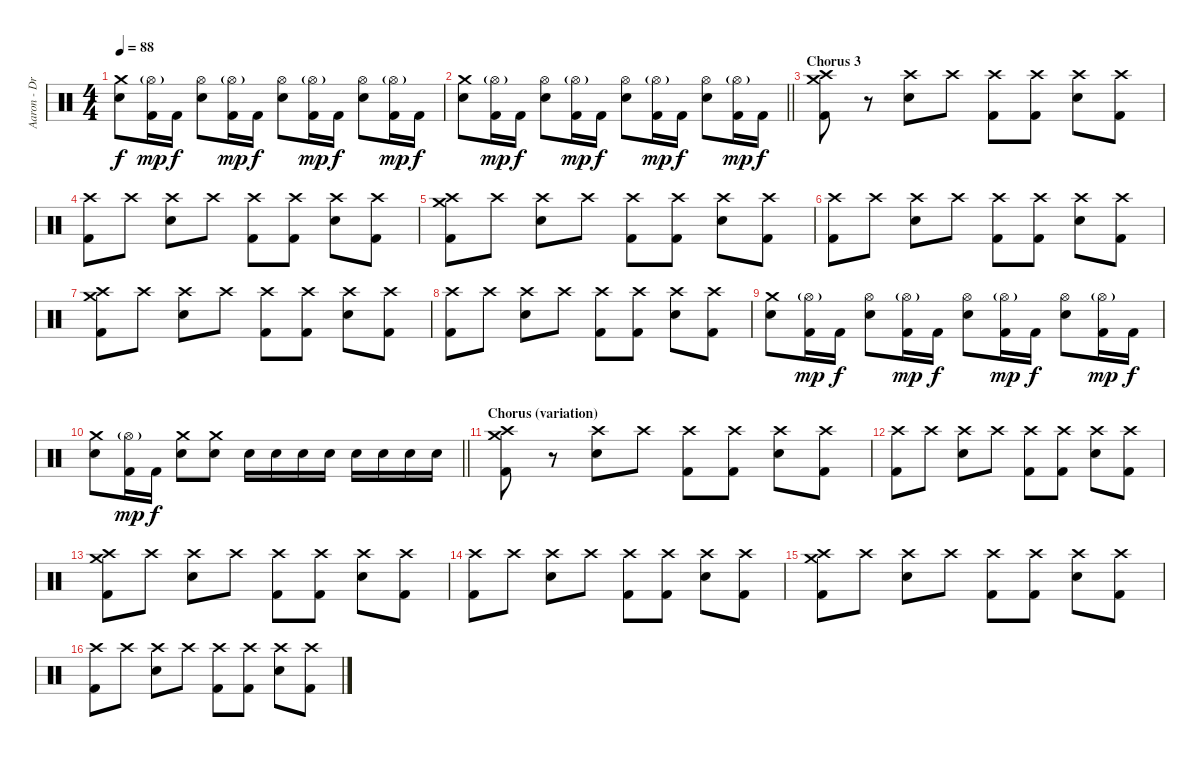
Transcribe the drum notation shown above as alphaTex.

\track ("Aaron - Drums" "Aaron - Dr") {instrument percussion}
\staff {score}
\articulation defaults
\ts (4 4)
\tempo 88
\clef neutral
\ks c
("Crash medium (hit)" "Electric Snare (hit)").8{dy f} ("Hi-Hat (open)"{g} "Kick (hit) 2").16{dy mp} "Kick (hit) 2".16{dy f} ("Hi-Hat (open)" "Electric Snare (hit)").8 ("Hi-Hat (open)"{g} "Kick (hit) 2").16{dy mp} "Kick (hit) 2".16{dy f} ("Hi-Hat (open)" "Electric Snare (hit)").8 ("Hi-Hat (open)"{g} "Kick (hit) 2").16{dy mp} "Kick (hit) 2".16{dy f} ("Hi-Hat (open)" "Electric Snare (hit)").8 ("Hi-Hat (open)"{g} "Kick (hit) 2").16{dy mp} "Kick (hit) 2".16{dy f} |
\barLineRight lightlight
("Crash medium (hit)" "Electric Snare (hit)").8 ("Hi-Hat (open)"{g} "Kick (hit) 2").16{dy mp} "Kick (hit) 2".16{dy f} ("Hi-Hat (open)" "Electric Snare (hit)").8 ("Hi-Hat (open)"{g} "Kick (hit) 2").16{dy mp} "Kick (hit) 2".16{dy f} ("Hi-Hat (open)" "Electric Snare (hit)").8 ("Hi-Hat (open)"{g} "Kick (hit) 2").16{dy mp} "Kick (hit) 2".16{dy f} ("Hi-Hat (open)" "Electric Snare (hit)").8 ("Hi-Hat (open)"{g} "Kick (hit) 2").16{dy mp} "Kick (hit) 2".16{dy f} |
\section ("" "Chorus 3")
("Crash high (hit)" "Crash medium (hit)" "Kick (hit) 2").8 r.8 ("Crash high (hit)" "Electric Snare (hit)").8 "Crash high (hit)".8 ("Crash high (hit)" "Kick (hit) 2").8 ("Crash high (hit)" "Kick (hit) 2").8 ("Crash high (hit)" "Electric Snare (hit)").8 ("Crash high (hit)" "Kick (hit) 2").8 |
("Crash high (hit)" "Kick (hit) 2").8 "Crash high (hit)".8 ("Crash high (hit)" "Electric Snare (hit)").8 "Crash high (hit)".8 ("Crash high (hit)" "Kick (hit) 2").8 ("Crash high (hit)" "Kick (hit) 2").8 ("Crash high (hit)" "Electric Snare (hit)").8 ("Crash high (hit)" "Kick (hit) 2").8 |
("Crash high (hit)" "Crash medium (hit)" "Kick (hit) 2").8 "Crash high (hit)".8 ("Crash high (hit)" "Electric Snare (hit)").8 "Crash high (hit)".8 ("Crash high (hit)" "Kick (hit) 2").8 ("Crash high (hit)" "Kick (hit) 2").8 ("Crash high (hit)" "Electric Snare (hit)").8 ("Crash high (hit)" "Kick (hit) 2").8 |
("Crash high (hit)" "Kick (hit) 2").8 "Crash high (hit)".8 ("Crash high (hit)" "Electric Snare (hit)").8 "Crash high (hit)".8 ("Crash high (hit)" "Kick (hit) 2").8 ("Crash high (hit)" "Kick (hit) 2").8 ("Crash high (hit)" "Electric Snare (hit)").8 ("Crash high (hit)" "Kick (hit) 2").8 |
("Crash high (hit)" "Crash medium (hit)" "Kick (hit) 2").8 "Crash high (hit)".8 ("Crash high (hit)" "Electric Snare (hit)").8 "Crash high (hit)".8 ("Crash high (hit)" "Kick (hit) 2").8 ("Crash high (hit)" "Kick (hit) 2").8 ("Crash high (hit)" "Electric Snare (hit)").8 ("Crash high (hit)" "Kick (hit) 2").8 |
("Crash high (hit)" "Kick (hit) 2").8 "Crash high (hit)".8 ("Crash high (hit)" "Electric Snare (hit)").8 "Crash high (hit)".8 ("Crash high (hit)" "Kick (hit) 2").8 ("Crash high (hit)" "Kick (hit) 2").8 ("Crash high (hit)" "Electric Snare (hit)").8 ("Crash high (hit)" "Kick (hit) 2").8 |
("Crash medium (hit)" "Electric Snare (hit)").8 ("Hi-Hat (open)"{g} "Kick (hit) 2").16{dy mp} "Kick (hit) 2".16{dy f} ("Hi-Hat (open)" "Electric Snare (hit)").8 ("Hi-Hat (open)"{g} "Kick (hit) 2").16{dy mp} "Kick (hit) 2".16{dy f} ("Hi-Hat (open)" "Electric Snare (hit)").8 ("Hi-Hat (open)"{g} "Kick (hit) 2").16{dy mp} "Kick (hit) 2".16{dy f} ("Hi-Hat (open)" "Electric Snare (hit)").8 ("Hi-Hat (open)"{g} "Kick (hit) 2").16{dy mp} "Kick (hit) 2".16{dy f} |
\barLineRight lightlight
("Crash medium (hit)" "Electric Snare (hit)").8 ("Hi-Hat (open)"{g} "Kick (hit) 2").16{dy mp} "Kick (hit) 2".16{dy f} ("Crash medium (hit)" "Electric Snare (hit)").8 ("Crash medium (hit)" "Electric Snare (hit)").8 "Electric Snare (hit)".16 "Electric Snare (hit)".16 "Electric Snare (hit)".16 "Electric Snare (hit)".16 "Electric Snare (hit)".16 "Electric Snare (hit)".16 "Electric Snare (hit)".16 "Electric Snare (hit)".16 |
\section ("" "Chorus (variation)")
("Crash high (hit)" "Crash medium (hit)" "Kick (hit) 2").8 r.8 ("Crash high (hit)" "Electric Snare (hit)").8 "Crash high (hit)".8 ("Crash high (hit)" "Kick (hit) 2").8 ("Crash high (hit)" "Kick (hit) 2").8 ("Crash high (hit)" "Electric Snare (hit)").8 ("Crash high (hit)" "Kick (hit) 2").8 |
("Crash high (hit)" "Kick (hit) 2").8 "Crash high (hit)".8 ("Crash high (hit)" "Electric Snare (hit)").8 "Crash high (hit)".8 ("Crash high (hit)" "Kick (hit) 2").8 ("Crash high (hit)" "Kick (hit) 2").8 ("Crash high (hit)" "Electric Snare (hit)").8 ("Crash high (hit)" "Kick (hit) 2").8 |
("Crash high (hit)" "Crash medium (hit)" "Kick (hit) 2").8 "Crash high (hit)".8 ("Crash high (hit)" "Electric Snare (hit)").8 "Crash high (hit)".8 ("Crash high (hit)" "Kick (hit) 2").8 ("Crash high (hit)" "Kick (hit) 2").8 ("Crash high (hit)" "Electric Snare (hit)").8 ("Crash high (hit)" "Kick (hit) 2").8 |
("Crash high (hit)" "Kick (hit) 2").8 "Crash high (hit)".8 ("Crash high (hit)" "Electric Snare (hit)").8 "Crash high (hit)".8 ("Crash high (hit)" "Kick (hit) 2").8 ("Crash high (hit)" "Kick (hit) 2").8 ("Crash high (hit)" "Electric Snare (hit)").8 ("Crash high (hit)" "Kick (hit) 2").8 |
("Crash high (hit)" "Crash medium (hit)" "Kick (hit) 2").8 "Crash high (hit)".8 ("Crash high (hit)" "Electric Snare (hit)").8 "Crash high (hit)".8 ("Crash high (hit)" "Kick (hit) 2").8 ("Crash high (hit)" "Kick (hit) 2").8 ("Crash high (hit)" "Electric Snare (hit)").8 ("Crash high (hit)" "Kick (hit) 2").8 |
("Crash high (hit)" "Kick (hit) 2").8 "Crash high (hit)".8 ("Crash high (hit)" "Electric Snare (hit)").8 "Crash high (hit)".8 ("Crash high (hit)" "Kick (hit) 2").8 ("Crash high (hit)" "Kick (hit) 2").8 ("Crash high (hit)" "Electric Snare (hit)").8 ("Crash high (hit)" "Kick (hit) 2").8
